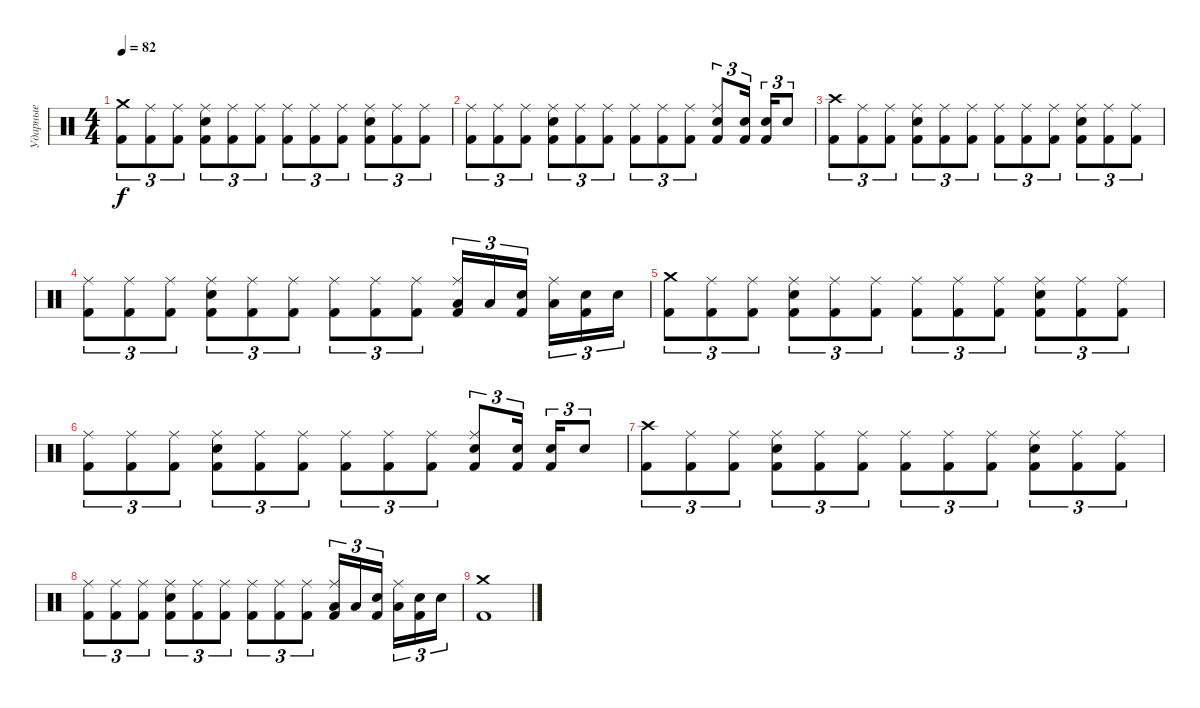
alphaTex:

\track ("Ударные" "Ударные") {instrument percussion}
\staff {score}
\articulation defaults
\ts (4 4)
\tempo 82
\clef neutral
\ks c
("Crash medium (hit)" "Kick (hit) 2").8{tu (3 2) dy f} ("Ride (middle)" "Kick (hit) 2").8{tu (3 2)} ("Ride (middle)" "Kick (hit) 2").8{tu (3 2)} ("Ride (middle)" "Electric Snare (hit)" "Kick (hit) 2").8{tu (3 2)} ("Ride (middle)" "Kick (hit) 2").8{tu (3 2)} ("Ride (middle)" "Kick (hit) 2").8{tu (3 2)} ("Ride (middle)" "Kick (hit) 2").8{tu (3 2)} ("Ride (middle)" "Kick (hit) 2").8{tu (3 2)} ("Ride (middle)" "Kick (hit) 2").8{tu (3 2)} ("Ride (middle)" "Electric Snare (hit)" "Kick (hit) 2").8{tu (3 2)} ("Ride (middle)" "Kick (hit) 2").8{tu (3 2)} ("Ride (middle)" "Kick (hit) 2").8{tu (3 2)} |
("Ride (middle)" "Kick (hit) 2").8{tu (3 2)} ("Ride (middle)" "Kick (hit) 2").8{tu (3 2)} ("Ride (middle)" "Kick (hit) 2").8{tu (3 2)} ("Ride (middle)" "Electric Snare (hit)" "Kick (hit) 2").8{tu (3 2)} ("Ride (middle)" "Kick (hit) 2").8{tu (3 2)} ("Ride (middle)" "Kick (hit) 2").8{tu (3 2)} ("Ride (middle)" "Kick (hit) 2").8{tu (3 2)} ("Ride (middle)" "Kick (hit) 2").8{tu (3 2)} ("Ride (middle)" "Kick (hit) 2").8{tu (3 2)} ("Ride (middle)" "Electric Snare (hit)" "Kick (hit) 2").8{tu (3 2)} ("Electric Snare (hit)" "Kick (hit) 2").16{tu (3 2)} ("Electric Snare (hit)" "Kick (hit) 2").16{tu (3 2)} "Electric Snare (hit)".8{tu (3 2)} |
("Crash high (hit)" "Kick (hit) 2").8{tu (3 2)} ("Ride (middle)" "Kick (hit) 2").8{tu (3 2)} ("Ride (middle)" "Kick (hit) 2").8{tu (3 2)} ("Ride (middle)" "Electric Snare (hit)" "Kick (hit) 2").8{tu (3 2)} ("Ride (middle)" "Kick (hit) 2").8{tu (3 2)} ("Ride (middle)" "Kick (hit) 2").8{tu (3 2)} ("Ride (middle)" "Kick (hit) 2").8{tu (3 2)} ("Ride (middle)" "Kick (hit) 2").8{tu (3 2)} ("Ride (middle)" "Kick (hit) 2").8{tu (3 2)} ("Ride (middle)" "Electric Snare (hit)" "Kick (hit) 2").8{tu (3 2)} ("Ride (middle)" "Kick (hit) 2").8{tu (3 2)} ("Ride (middle)" "Kick (hit) 2").8{tu (3 2)} |
("Ride (middle)" "Kick (hit) 2").8{tu (3 2)} ("Ride (middle)" "Kick (hit) 2").8{tu (3 2)} ("Ride (middle)" "Kick (hit) 2").8{tu (3 2)} ("Ride (middle)" "Electric Snare (hit)" "Kick (hit) 2").8{tu (3 2)} ("Ride (middle)" "Kick (hit) 2").8{tu (3 2)} ("Ride (middle)" "Kick (hit) 2").8{tu (3 2)} ("Ride (middle)" "Kick (hit) 2").8{tu (3 2)} ("Ride (middle)" "Kick (hit) 2").8{tu (3 2)} ("Ride (middle)" "Kick (hit) 2").8{tu (3 2)} ("Ride (middle)" "Low Tom (hit)" "Kick (hit) 2").16{tu (3 2)} "Low Tom (hit)".16{tu (3 2)} ("Electric Snare (hit)" "Kick (hit) 2").16{tu (3 2)} ("Ride (middle)" "Low Tom (hit)").16{tu (3 2)} ("Electric Snare (hit)" "Kick (hit) 2").16{tu (3 2)} "Electric Snare (hit)".16{tu (3 2)} |
("Crash medium (hit)" "Kick (hit) 2").8{tu (3 2)} ("Ride (middle)" "Kick (hit) 2").8{tu (3 2)} ("Ride (middle)" "Kick (hit) 2").8{tu (3 2)} ("Ride (middle)" "Electric Snare (hit)" "Kick (hit) 2").8{tu (3 2)} ("Ride (middle)" "Kick (hit) 2").8{tu (3 2)} ("Ride (middle)" "Kick (hit) 2").8{tu (3 2)} ("Ride (middle)" "Kick (hit) 2").8{tu (3 2)} ("Ride (middle)" "Kick (hit) 2").8{tu (3 2)} ("Ride (middle)" "Kick (hit) 2").8{tu (3 2)} ("Ride (middle)" "Electric Snare (hit)" "Kick (hit) 2").8{tu (3 2)} ("Ride (middle)" "Kick (hit) 2").8{tu (3 2)} ("Ride (middle)" "Kick (hit) 2").8{tu (3 2)} |
("Ride (middle)" "Kick (hit) 2").8{tu (3 2)} ("Ride (middle)" "Kick (hit) 2").8{tu (3 2)} ("Ride (middle)" "Kick (hit) 2").8{tu (3 2)} ("Ride (middle)" "Electric Snare (hit)" "Kick (hit) 2").8{tu (3 2)} ("Ride (middle)" "Kick (hit) 2").8{tu (3 2)} ("Ride (middle)" "Kick (hit) 2").8{tu (3 2)} ("Ride (middle)" "Kick (hit) 2").8{tu (3 2)} ("Ride (middle)" "Kick (hit) 2").8{tu (3 2)} ("Ride (middle)" "Kick (hit) 2").8{tu (3 2)} ("Ride (middle)" "Electric Snare (hit)" "Kick (hit) 2").8{tu (3 2)} ("Electric Snare (hit)" "Kick (hit) 2").16{tu (3 2)} ("Electric Snare (hit)" "Kick (hit) 2").16{tu (3 2)} "Electric Snare (hit)".8{tu (3 2)} |
("Crash high (hit)" "Kick (hit) 2").8{tu (3 2)} ("Ride (middle)" "Kick (hit) 2").8{tu (3 2)} ("Ride (middle)" "Kick (hit) 2").8{tu (3 2)} ("Ride (middle)" "Electric Snare (hit)" "Kick (hit) 2").8{tu (3 2)} ("Ride (middle)" "Kick (hit) 2").8{tu (3 2)} ("Ride (middle)" "Kick (hit) 2").8{tu (3 2)} ("Ride (middle)" "Kick (hit) 2").8{tu (3 2)} ("Ride (middle)" "Kick (hit) 2").8{tu (3 2)} ("Ride (middle)" "Kick (hit) 2").8{tu (3 2)} ("Ride (middle)" "Electric Snare (hit)" "Kick (hit) 2").8{tu (3 2)} ("Ride (middle)" "Kick (hit) 2").8{tu (3 2)} ("Ride (middle)" "Kick (hit) 2").8{tu (3 2)} |
("Ride (middle)" "Kick (hit) 2").8{tu (3 2)} ("Ride (middle)" "Kick (hit) 2").8{tu (3 2)} ("Ride (middle)" "Kick (hit) 2").8{tu (3 2)} ("Ride (middle)" "Electric Snare (hit)" "Kick (hit) 2").8{tu (3 2)} ("Ride (middle)" "Kick (hit) 2").8{tu (3 2)} ("Ride (middle)" "Kick (hit) 2").8{tu (3 2)} ("Ride (middle)" "Kick (hit) 2").8{tu (3 2)} ("Ride (middle)" "Kick (hit) 2").8{tu (3 2)} ("Ride (middle)" "Kick (hit) 2").8{tu (3 2)} ("Ride (middle)" "Low Tom (hit)" "Kick (hit) 2").16{tu (3 2)} "Low Tom (hit)".16{tu (3 2)} ("Electric Snare (hit)" "Kick (hit) 2").16{tu (3 2)} ("Ride (middle)" "Low Tom (hit)").16{tu (3 2)} ("Electric Snare (hit)" "Kick (hit) 2").16{tu (3 2)} "Electric Snare (hit)".16{tu (3 2)} |
("Crash medium (hit)" "Kick (hit) 2").1
